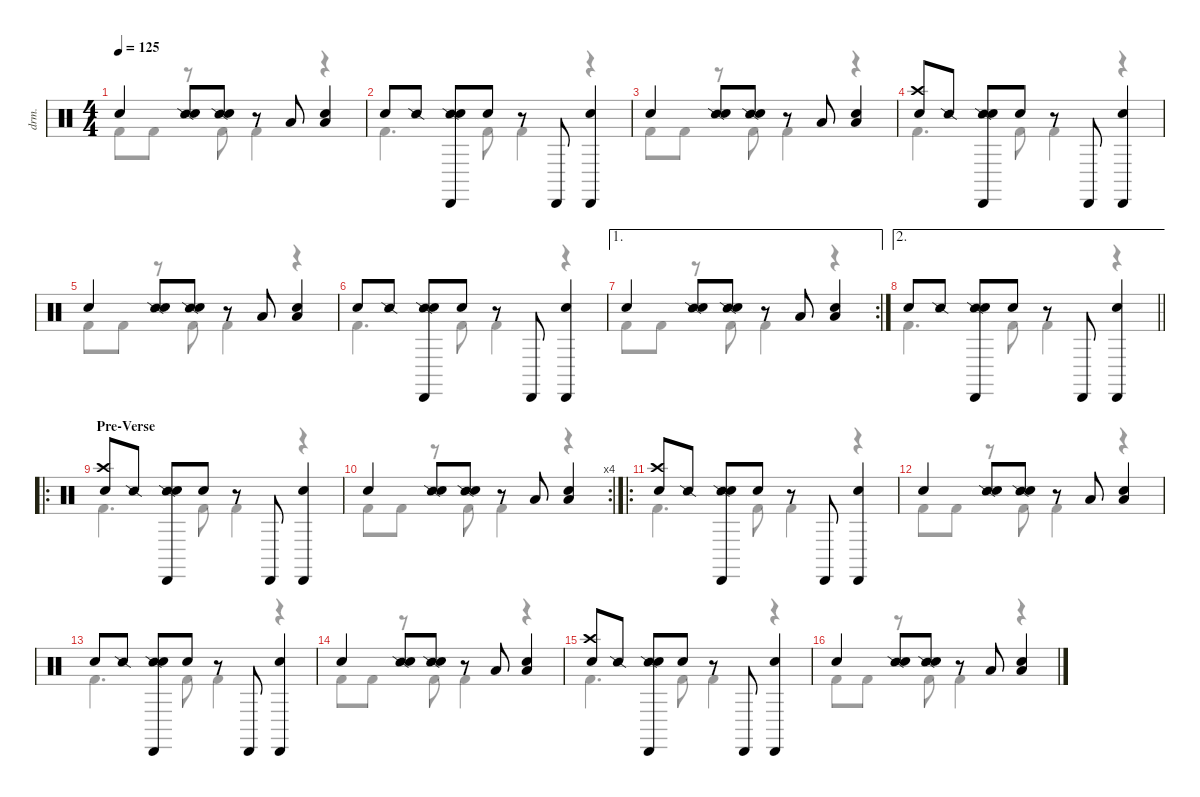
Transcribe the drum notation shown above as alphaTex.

\defaultSystemsLayout 4
\hideDynamics
\bracketExtendMode nobrackets
\otherSystemsTrackNameOrientation horizontal
\track ("Drums" "drm.") {instrument percussion}
\staff {score}
\articulation defaults
\voice
\ts (4 4)
\tempo 125
\clef neutral
\ks c "Hand Clap (hit)".4{dy p beam Up}
("Snare (side stick) 2" "Snare (hit) 2").8{dy mf beam Up} ("Snare (side stick) 2" "Hand Clap (hit)").8{beam Up} r.8{beam Up} "Low Tom (hit)".8{dy f beam Up} ("Low Tom (hit)" "Snare (hit) 2").4{beam Up} |
"Hand Clap (hit)".8{dy p beam Up} "Snare (side stick) 2".8{dy f beam Up} ("Snare (side stick) 2" "Cabasa (hit)" "Snare (hit) 2").8{beam Up} "Hand Clap (hit)".8{dy p beam Up} r.8{beam Up} "Cabasa (hit)".8{dy f beam Up} ("Cabasa (hit)" "Snare (hit) 2").4{beam Up} |
"Hand Clap (hit)".4{dy p beam Up} ("Snare (side stick) 2" "Snare (hit) 2").8{dy mf beam Up} ("Snare (side stick) 2" "Hand Clap (hit)").8{beam Up} r.8{beam Up} "Low Tom (hit)".8{dy f beam Up} ("Low Tom (hit)" "Snare (hit) 2").4{beam Up} |
("Crash high (hit)" "Hand Clap (hit)").8{dy mp beam Up} "Snare (side stick) 2".8{dy f beam Up} ("Snare (side stick) 2" "Cabasa (hit)" "Snare (hit) 2").8{beam Up} "Hand Clap (hit)".8{dy p beam Up} r.8{beam Up} "Cabasa (hit)".8{dy f beam Up} ("Cabasa (hit)" "Snare (hit) 2").4{beam Up} |
"Hand Clap (hit)".4{dy p beam Up} ("Snare (side stick) 2" "Snare (hit) 2").8{dy mf beam Up} ("Snare (side stick) 2" "Hand Clap (hit)").8{beam Up} r.8{beam Up} "Low Tom (hit)".8{dy f beam Up} ("Low Tom (hit)" "Snare (hit) 2").4{beam Up} |
"Hand Clap (hit)".8{dy p beam Up} "Snare (side stick) 2".8{dy f beam Up} ("Snare (side stick) 2" "Cabasa (hit)" "Snare (hit) 2").8{beam Up} "Hand Clap (hit)".8{dy p beam Up} r.8{beam Up} "Cabasa (hit)".8{dy f beam Up} ("Cabasa (hit)" "Snare (hit) 2").4{beam Up} |
\ae 1
\rc 2 "Hand Clap (hit)".4{dy p beam Up}
("Snare (side stick) 2" "Snare (hit) 2").8{dy mf beam Up} ("Snare (side stick) 2" "Hand Clap (hit)").8{beam Up} r.8{beam Up} "Low Tom (hit)".8{dy f beam Up} ("Low Tom (hit)" "Snare (hit) 2").4{beam Up} |
\ae 2
\barLineRight lightlight "Hand Clap (hit)".8{dy p beam Up} "Snare (side stick) 2".8{dy f beam Up}
("Snare (side stick) 2" "Cabasa (hit)" "Snare (hit) 2").8{beam Up} "Hand Clap (hit)".8{dy p beam Up} r.8{beam Up} "Cabasa (hit)".8{dy f beam Up} ("Cabasa (hit)" "Snare (hit) 2").4{beam Up} |
\ro
\section ("" "Pre-Verse")
("Crash high (hit)" "Hand Clap (hit)").8{dy mp beam Up} "Snare (side stick) 2".8{dy f beam Up} ("Snare (side stick) 2" "Cabasa (hit)" "Snare (hit) 2").8{beam Up} "Hand Clap (hit)".8{dy p beam Up} r.8{beam Up} "Cabasa (hit)".8{dy f beam Up} ("Cabasa (hit)" "Snare (hit) 2").4{beam Up} |
\rc 4 "Hand Clap (hit)".4{dy p beam Up}
("Snare (side stick) 2" "Snare (hit) 2").8{dy mf beam Up} ("Snare (side stick) 2" "Hand Clap (hit)").8{beam Up} r.8{beam Up} "Low Tom (hit)".8{dy f beam Up} ("Low Tom (hit)" "Snare (hit) 2").4{beam Up} |
\ro
("Crash high (hit)" "Hand Clap (hit)").8{dy mp beam Up} "Snare (side stick) 2".8{dy f beam Up} ("Snare (side stick) 2" "Cabasa (hit)" "Snare (hit) 2").8{beam Up} "Hand Clap (hit)".8{dy p beam Up} r.8{beam Up} "Cabasa (hit)".8{dy f beam Up} ("Cabasa (hit)" "Snare (hit) 2").4{beam Up} |
"Hand Clap (hit)".4{dy p beam Up} ("Snare (side stick) 2" "Snare (hit) 2").8{dy mf beam Up} ("Snare (side stick) 2" "Hand Clap (hit)").8{beam Up} r.8{beam Up} "Low Tom (hit)".8{dy f beam Up} ("Low Tom (hit)" "Snare (hit) 2").4{beam Up} |
"Hand Clap (hit)".8{dy p beam Up} "Snare (side stick) 2".8{dy f beam Up} ("Snare (side stick) 2" "Cabasa (hit)" "Snare (hit) 2").8{beam Up} "Hand Clap (hit)".8{dy p beam Up} r.8{beam Up} "Cabasa (hit)".8{dy f beam Up} ("Cabasa (hit)" "Snare (hit) 2").4{beam Up} |
"Hand Clap (hit)".4{dy p beam Up} ("Snare (side stick) 2" "Snare (hit) 2").8{dy mf beam Up} ("Snare (side stick) 2" "Hand Clap (hit)").8{beam Up} r.8{beam Up} "Low Tom (hit)".8{dy f beam Up} ("Low Tom (hit)" "Snare (hit) 2").4{beam Up} |
("Crash high (hit)" "Hand Clap (hit)").8{dy mp beam Up} "Snare (side stick) 2".8{dy f beam Up} ("Snare (side stick) 2" "Cabasa (hit)" "Snare (hit) 2").8{beam Up} "Hand Clap (hit)".8{dy p beam Up} r.8{beam Up} "Cabasa (hit)".8{dy f beam Up} ("Cabasa (hit)" "Snare (hit) 2").4{beam Up} |
"Hand Clap (hit)".4{dy p beam Up} ("Snare (side stick) 2" "Snare (hit) 2").8{dy mf beam Up} ("Snare (side stick) 2" "Hand Clap (hit)").8{beam Up} r.8{beam Up} "Low Tom (hit)".8{dy f beam Up} ("Low Tom (hit)" "Snare (hit) 2").4{beam Up}
\voice
\clef neutral
\ottava regular
\simile none
\ks c "Kick (hit) 2".8{dy ff beam Down} "Kick (hit) 2".8{dy p beam Down}
r.8{beam Down} "Kick (hit) 2".8{dy ff beam Down} "Kick (hit) 2".4{dy p beam Down} r.4{beam Down} |
"Kick (hit) 2".4{d dy ff beam Down} "Kick (hit) 2".8{beam Down} "Kick (hit) 2".4{dy p beam Down} r.4{beam Down} |
"Kick (hit) 2".8{dy ff beam Down} "Kick (hit) 2".8{dy p beam Down} r.8{beam Down} "Kick (hit) 2".8{dy ff beam Down} "Kick (hit) 2".4{dy p beam Down} r.4{beam Down} |
"Kick (hit) 2".4{d dy ff beam Down} "Kick (hit) 2".8{beam Down} "Kick (hit) 2".4{dy p beam Down} r.4{beam Down} |
"Kick (hit) 2".8{dy ff beam Down} "Kick (hit) 2".8{dy p beam Down} r.8{beam Down} "Kick (hit) 2".8{dy ff beam Down} "Kick (hit) 2".4{dy p beam Down} r.4{beam Down} |
"Kick (hit) 2".4{d dy ff beam Down} "Kick (hit) 2".8{beam Down} "Kick (hit) 2".4{dy p beam Down} r.4{beam Down} |
"Kick (hit) 2".8{dy ff beam Down} "Kick (hit) 2".8{dy p beam Down} r.8{beam Down} "Kick (hit) 2".8{dy ff beam Down} "Kick (hit) 2".4{dy p beam Down} r.4{beam Down} |
\barLineRight lightlight "Kick (hit) 2".4{d dy ff beam Down} "Kick (hit) 2".8{dy p beam Down} "Kick (hit) 2".4{dy ff beam Down}
r.4{beam Down} |
"Kick (hit) 2".4{d beam Down} "Kick (hit) 2".8{beam Down} "Kick (hit) 2".4{dy p beam Down} r.4{beam Down} |
"Kick (hit) 2".8{dy ff beam Down} "Kick (hit) 2".8{dy p beam Down} r.8{beam Down} "Kick (hit) 2".8{dy ff beam Down} "Kick (hit) 2".4{dy p beam Down} r.4{beam Down} |
"Kick (hit) 2".4{d dy ff beam Down} "Kick (hit) 2".8{beam Down} "Kick (hit) 2".4{dy p beam Down} r.4{beam Down} |
"Kick (hit) 2".8{dy ff beam Down} "Kick (hit) 2".8{dy p beam Down} r.8{beam Down} "Kick (hit) 2".8{dy ff beam Down} "Kick (hit) 2".4{dy p beam Down} r.4{beam Down} |
"Kick (hit) 2".4{d dy ff beam Down} "Kick (hit) 2".8{beam Down} "Kick (hit) 2".4{dy p beam Down} r.4{beam Down} |
"Kick (hit) 2".8{dy ff beam Down} "Kick (hit) 2".8{dy p beam Down} r.8{beam Down} "Kick (hit) 2".8{dy ff beam Down} "Kick (hit) 2".4{dy p beam Down} r.4{beam Down} |
"Kick (hit) 2".4{d dy ff beam Down} "Kick (hit) 2".8{beam Down} "Kick (hit) 2".4{dy p beam Down} r.4{beam Down} |
"Kick (hit) 2".8{dy ff beam Down} "Kick (hit) 2".8{dy p beam Down} r.8{beam Down} "Kick (hit) 2".8{dy ff beam Down} "Kick (hit) 2".4{dy p beam Down} r.4{beam Down}
